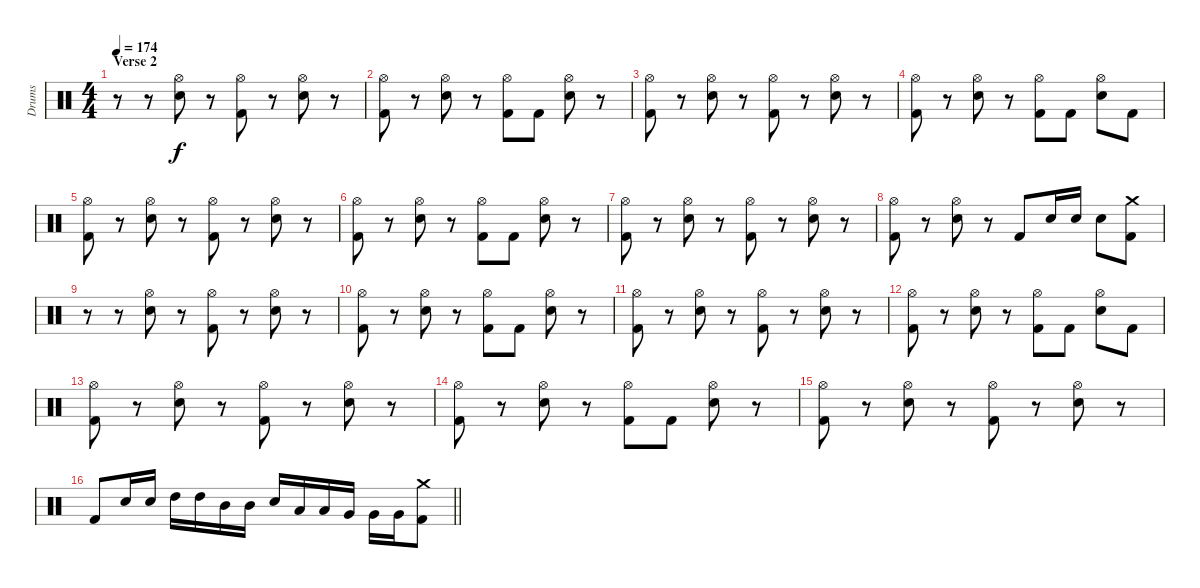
\track ("Drums" "Drums") {instrument percussion}
\staff {score}
\articulation defaults
\ts (4 4)
\section ("" "Verse 2")
\tempo 174
\clef neutral
\ks c
r.8{dy f} r.8 ("Hi-Hat (open)" "Electric Snare (hit)").8 r.8 ("Hi-Hat (open)" "Kick (hit) 2").8 r.8 ("Hi-Hat (open)" "Electric Snare (hit)").8 r.8 |
("Hi-Hat (open)" "Kick (hit) 2").8 r.8 ("Hi-Hat (open)" "Electric Snare (hit)").8 r.8 ("Hi-Hat (open)" "Kick (hit) 2").8 "Kick (hit) 2".8 ("Hi-Hat (open)" "Electric Snare (hit)").8 r.8 |
("Hi-Hat (open)" "Kick (hit) 2").8 r.8 ("Hi-Hat (open)" "Electric Snare (hit)").8 r.8 ("Hi-Hat (open)" "Kick (hit) 2").8 r.8 ("Hi-Hat (open)" "Electric Snare (hit)").8 r.8 |
("Hi-Hat (open)" "Kick (hit) 2").8 r.8 ("Hi-Hat (open)" "Electric Snare (hit)").8 r.8 ("Hi-Hat (open)" "Kick (hit) 2").8 "Kick (hit) 2".8 ("Hi-Hat (open)" "Electric Snare (hit)").8 "Kick (hit) 2".8 |
("Hi-Hat (open)" "Kick (hit) 2").8 r.8 ("Hi-Hat (open)" "Electric Snare (hit)").8 r.8 ("Hi-Hat (open)" "Kick (hit) 2").8 r.8 ("Hi-Hat (open)" "Electric Snare (hit)").8 r.8 |
("Hi-Hat (open)" "Kick (hit) 2").8 r.8 ("Hi-Hat (open)" "Electric Snare (hit)").8 r.8 ("Hi-Hat (open)" "Kick (hit) 2").8 "Kick (hit) 2".8 ("Hi-Hat (open)" "Electric Snare (hit)").8 r.8 |
("Hi-Hat (open)" "Kick (hit) 2").8 r.8 ("Hi-Hat (open)" "Electric Snare (hit)").8 r.8 ("Hi-Hat (open)" "Kick (hit) 2").8 r.8 ("Hi-Hat (open)" "Electric Snare (hit)").8 r.8 |
("Hi-Hat (open)" "Kick (hit) 2").8 r.8 ("Hi-Hat (open)" "Electric Snare (hit)").8 r.8 "Kick (hit) 2".8 "Electric Snare (hit)".16 "Electric Snare (hit)".16 "Electric Snare (hit)".8 ("Crash medium (hit)" "Kick (hit) 2").8 |
r.8 r.8 ("Hi-Hat (open)" "Electric Snare (hit)").8 r.8 ("Hi-Hat (open)" "Kick (hit) 2").8 r.8 ("Hi-Hat (open)" "Electric Snare (hit)").8 r.8 |
("Hi-Hat (open)" "Kick (hit) 2").8 r.8 ("Hi-Hat (open)" "Electric Snare (hit)").8 r.8 ("Hi-Hat (open)" "Kick (hit) 2").8 "Kick (hit) 2".8 ("Hi-Hat (open)" "Electric Snare (hit)").8 r.8 |
("Hi-Hat (open)" "Kick (hit) 2").8 r.8 ("Hi-Hat (open)" "Electric Snare (hit)").8 r.8 ("Hi-Hat (open)" "Kick (hit) 2").8 r.8 ("Hi-Hat (open)" "Electric Snare (hit)").8 r.8 |
("Hi-Hat (open)" "Kick (hit) 2").8 r.8 ("Hi-Hat (open)" "Electric Snare (hit)").8 r.8 ("Hi-Hat (open)" "Kick (hit) 2").8 "Kick (hit) 2".8 ("Hi-Hat (open)" "Electric Snare (hit)").8 "Kick (hit) 2".8 |
("Hi-Hat (open)" "Kick (hit) 2").8 r.8 ("Hi-Hat (open)" "Electric Snare (hit)").8 r.8 ("Hi-Hat (open)" "Kick (hit) 2").8 r.8 ("Hi-Hat (open)" "Electric Snare (hit)").8 r.8 |
("Hi-Hat (open)" "Kick (hit) 2").8 r.8 ("Hi-Hat (open)" "Electric Snare (hit)").8 r.8 ("Hi-Hat (open)" "Kick (hit) 2").8 "Kick (hit) 2".8 ("Hi-Hat (open)" "Electric Snare (hit)").8 r.8 |
("Hi-Hat (open)" "Kick (hit) 2").8 r.8 ("Hi-Hat (open)" "Electric Snare (hit)").8 r.8 ("Hi-Hat (open)" "Kick (hit) 2").8 r.8 ("Hi-Hat (open)" "Electric Snare (hit)").8 r.8 |
\barLineRight lightlight "Kick (hit) 2".8 "Electric Snare (hit)".16 "Electric Snare (hit)".16 "High Tom (hit)".16 "High Tom (hit)".16 "Mid Tom (hit)".16 "Mid Tom (hit)".16 "Electric Snare (hit)".16 "Low Tom (hit)".16 "Low Tom (hit)".16 "Very Low Tom (hit)".16 "Very Low Tom (hit)".16 "Very Low Tom (hit)".16
("Crash medium (hit)" "Kick (hit) 2").8
